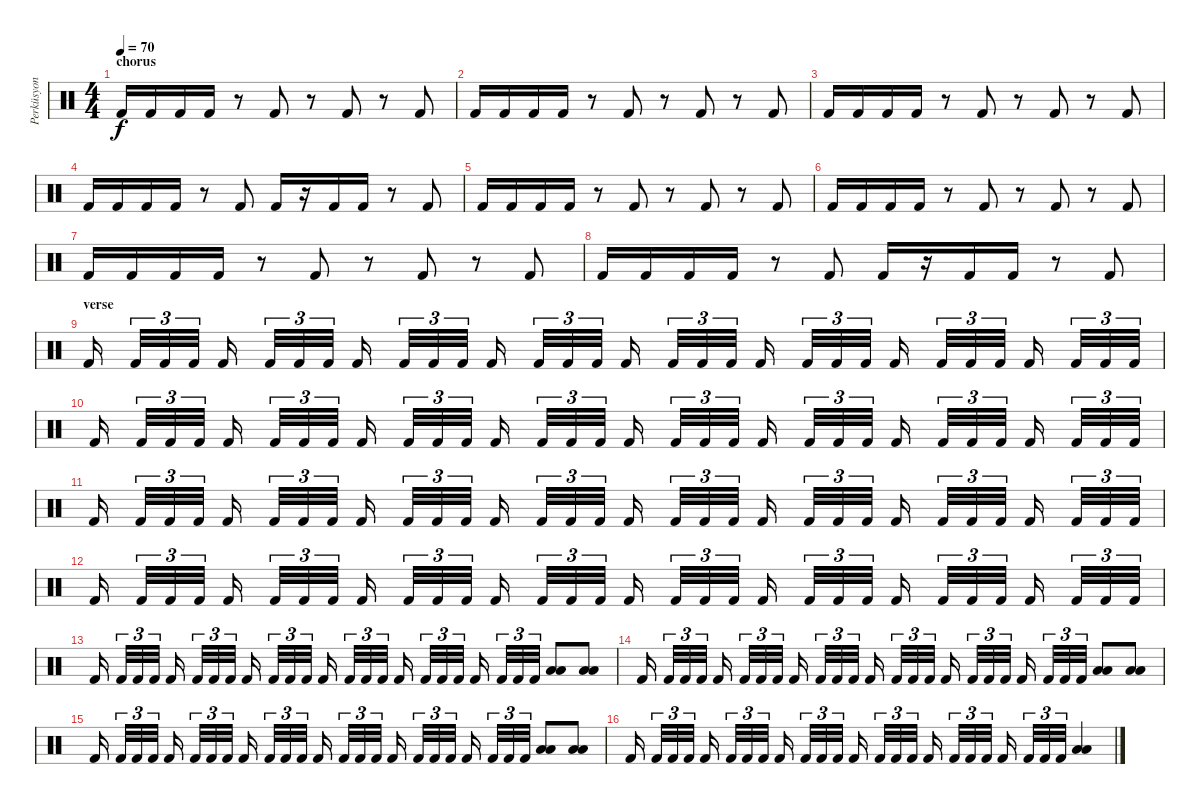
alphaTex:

\track ("Perküsyon" "Perküsyon") {instrument percussion}
\staff {score}
\articulation defaults
\ts (4 4)
\section ("" "chorus")
\tempo 70
\clef neutral
\ks c "Kick (hit) 2".16{dy f} "Kick (hit) 2".16 "Kick (hit) 2".16 "Kick (hit) 2".16
r.8 "Kick (hit) 2".8 r.8 "Kick (hit) 2".8 r.8 "Kick (hit) 2".8 |
"Kick (hit) 2".16 "Kick (hit) 2".16 "Kick (hit) 2".16 "Kick (hit) 2".16 r.8 "Kick (hit) 2".8 r.8 "Kick (hit) 2".8 r.8 "Kick (hit) 2".8 |
"Kick (hit) 2".16 "Kick (hit) 2".16 "Kick (hit) 2".16 "Kick (hit) 2".16 r.8 "Kick (hit) 2".8 r.8 "Kick (hit) 2".8 r.8 "Kick (hit) 2".8 |
"Kick (hit) 2".16 "Kick (hit) 2".16 "Kick (hit) 2".16 "Kick (hit) 2".16 r.8 "Kick (hit) 2".8 "Kick (hit) 2".16 r.16 "Kick (hit) 2".16 "Kick (hit) 2".16 r.8 "Kick (hit) 2".8 |
"Kick (hit) 2".16 "Kick (hit) 2".16 "Kick (hit) 2".16 "Kick (hit) 2".16 r.8 "Kick (hit) 2".8 r.8 "Kick (hit) 2".8 r.8 "Kick (hit) 2".8 |
"Kick (hit) 2".16 "Kick (hit) 2".16 "Kick (hit) 2".16 "Kick (hit) 2".16 r.8 "Kick (hit) 2".8 r.8 "Kick (hit) 2".8 r.8 "Kick (hit) 2".8 |
"Kick (hit) 2".16 "Kick (hit) 2".16 "Kick (hit) 2".16 "Kick (hit) 2".16 r.8 "Kick (hit) 2".8 r.8 "Kick (hit) 2".8 r.8 "Kick (hit) 2".8 |
"Kick (hit) 2".16 "Kick (hit) 2".16 "Kick (hit) 2".16 "Kick (hit) 2".16 r.8 "Kick (hit) 2".8 "Kick (hit) 2".16 r.16 "Kick (hit) 2".16 "Kick (hit) 2".16 r.8 "Kick (hit) 2".8 |
\section ("" "verse")
"Kick (hit) 2".16{volume 10} "Kick (hit) 2".32{tu (3 2)} "Kick (hit) 2".32{tu (3 2)} "Kick (hit) 2".32{tu (3 2)} "Kick (hit) 2".16{volume 13} "Kick (hit) 2".32{tu (3 2)} "Kick (hit) 2".32{tu (3 2)} "Kick (hit) 2".32{tu (3 2)} "Kick (hit) 2".16{volume 10} "Kick (hit) 2".32{tu (3 2)} "Kick (hit) 2".32{tu (3 2)} "Kick (hit) 2".32{tu (3 2)} "Kick (hit) 2".16{volume 8} "Kick (hit) 2".32{tu (3 2)} "Kick (hit) 2".32{tu (3 2)} "Kick (hit) 2".32{tu (3 2)} "Kick (hit) 2".16{volume 6} "Kick (hit) 2".32{tu (3 2)} "Kick (hit) 2".32{tu (3 2)} "Kick (hit) 2".32{tu (3 2)} "Kick (hit) 2".16{volume 6} "Kick (hit) 2".32{tu (3 2)} "Kick (hit) 2".32{tu (3 2)} "Kick (hit) 2".32{tu (3 2)} "Kick (hit) 2".16{volume 3} "Kick (hit) 2".32{tu (3 2)} "Kick (hit) 2".32{tu (3 2)} "Kick (hit) 2".32{tu (3 2)} "Kick (hit) 2".16{volume 0} "Kick (hit) 2".32{tu (3 2)} "Kick (hit) 2".32{tu (3 2)} "Kick (hit) 2".32{tu (3 2)} |
"Kick (hit) 2".16{volume 10} "Kick (hit) 2".32{tu (3 2)} "Kick (hit) 2".32{tu (3 2)} "Kick (hit) 2".32{tu (3 2)} "Kick (hit) 2".16{volume 13} "Kick (hit) 2".32{tu (3 2)} "Kick (hit) 2".32{tu (3 2)} "Kick (hit) 2".32{tu (3 2)} "Kick (hit) 2".16{volume 10} "Kick (hit) 2".32{tu (3 2)} "Kick (hit) 2".32{tu (3 2)} "Kick (hit) 2".32{tu (3 2)} "Kick (hit) 2".16{volume 8} "Kick (hit) 2".32{tu (3 2)} "Kick (hit) 2".32{tu (3 2)} "Kick (hit) 2".32{tu (3 2)} "Kick (hit) 2".16{volume 6} "Kick (hit) 2".32{tu (3 2)} "Kick (hit) 2".32{tu (3 2)} "Kick (hit) 2".32{tu (3 2)} "Kick (hit) 2".16{volume 6} "Kick (hit) 2".32{tu (3 2)} "Kick (hit) 2".32{tu (3 2)} "Kick (hit) 2".32{tu (3 2)} "Kick (hit) 2".16{volume 3} "Kick (hit) 2".32{tu (3 2)} "Kick (hit) 2".32{tu (3 2)} "Kick (hit) 2".32{tu (3 2)} "Kick (hit) 2".16{volume 0} "Kick (hit) 2".32{tu (3 2)} "Kick (hit) 2".32{tu (3 2)} "Kick (hit) 2".32{tu (3 2)} |
"Kick (hit) 2".16{volume 10} "Kick (hit) 2".32{tu (3 2)} "Kick (hit) 2".32{tu (3 2)} "Kick (hit) 2".32{tu (3 2)} "Kick (hit) 2".16{volume 13} "Kick (hit) 2".32{tu (3 2)} "Kick (hit) 2".32{tu (3 2)} "Kick (hit) 2".32{tu (3 2)} "Kick (hit) 2".16{volume 10} "Kick (hit) 2".32{tu (3 2)} "Kick (hit) 2".32{tu (3 2)} "Kick (hit) 2".32{tu (3 2)} "Kick (hit) 2".16{volume 8} "Kick (hit) 2".32{tu (3 2)} "Kick (hit) 2".32{tu (3 2)} "Kick (hit) 2".32{tu (3 2)} "Kick (hit) 2".16{volume 6} "Kick (hit) 2".32{tu (3 2)} "Kick (hit) 2".32{tu (3 2)} "Kick (hit) 2".32{tu (3 2)} "Kick (hit) 2".16{volume 6} "Kick (hit) 2".32{tu (3 2)} "Kick (hit) 2".32{tu (3 2)} "Kick (hit) 2".32{tu (3 2)} "Kick (hit) 2".16{volume 3} "Kick (hit) 2".32{tu (3 2)} "Kick (hit) 2".32{tu (3 2)} "Kick (hit) 2".32{tu (3 2)} "Kick (hit) 2".16{volume 0} "Kick (hit) 2".32{tu (3 2)} "Kick (hit) 2".32{tu (3 2)} "Kick (hit) 2".32{tu (3 2)} |
"Kick (hit) 2".16{volume 10} "Kick (hit) 2".32{tu (3 2)} "Kick (hit) 2".32{tu (3 2)} "Kick (hit) 2".32{tu (3 2)} "Kick (hit) 2".16{volume 13} "Kick (hit) 2".32{tu (3 2)} "Kick (hit) 2".32{tu (3 2)} "Kick (hit) 2".32{tu (3 2)} "Kick (hit) 2".16{volume 10} "Kick (hit) 2".32{tu (3 2)} "Kick (hit) 2".32{tu (3 2)} "Kick (hit) 2".32{tu (3 2)} "Kick (hit) 2".16{volume 8} "Kick (hit) 2".32{tu (3 2)} "Kick (hit) 2".32{tu (3 2)} "Kick (hit) 2".32{tu (3 2)} "Kick (hit) 2".16{volume 6} "Kick (hit) 2".32{tu (3 2)} "Kick (hit) 2".32{tu (3 2)} "Kick (hit) 2".32{tu (3 2)} "Kick (hit) 2".16{volume 6} "Kick (hit) 2".32{tu (3 2)} "Kick (hit) 2".32{tu (3 2)} "Kick (hit) 2".32{tu (3 2)} "Kick (hit) 2".16{volume 3} "Kick (hit) 2".32{tu (3 2)} "Kick (hit) 2".32{tu (3 2)} "Kick (hit) 2".32{tu (3 2)} "Kick (hit) 2".16{volume 0} "Kick (hit) 2".32{tu (3 2)} "Kick (hit) 2".32{tu (3 2)} "Kick (hit) 2".32{tu (3 2)} |
"Kick (hit) 2".16{volume 10} "Kick (hit) 2".32{tu (3 2)} "Kick (hit) 2".32{tu (3 2)} "Kick (hit) 2".32{tu (3 2)} "Kick (hit) 2".16{volume 13} "Kick (hit) 2".32{tu (3 2)} "Kick (hit) 2".32{tu (3 2)} "Kick (hit) 2".32{tu (3 2)} "Kick (hit) 2".16{volume 10} "Kick (hit) 2".32{tu (3 2)} "Kick (hit) 2".32{tu (3 2)} "Kick (hit) 2".32{tu (3 2)} "Kick (hit) 2".16{volume 8} "Kick (hit) 2".32{tu (3 2)} "Kick (hit) 2".32{tu (3 2)} "Kick (hit) 2".32{tu (3 2)} "Kick (hit) 2".16{volume 6} "Kick (hit) 2".32{tu (3 2)} "Kick (hit) 2".32{tu (3 2)} "Kick (hit) 2".32{tu (3 2)} "Kick (hit) 2".16{volume 6} "Kick (hit) 2".32{tu (3 2)} "Kick (hit) 2".32{tu (3 2)} "Kick (hit) 2".32{tu (3 2)} ("Low Floor Tom (hit)" "Low Floor Tom (hit)").8{volume 11} ("Low Floor Tom (hit)" "Low Floor Tom (hit)").8 |
"Kick (hit) 2".16{volume 10} "Kick (hit) 2".32{tu (3 2)} "Kick (hit) 2".32{tu (3 2)} "Kick (hit) 2".32{tu (3 2)} "Kick (hit) 2".16{volume 13} "Kick (hit) 2".32{tu (3 2)} "Kick (hit) 2".32{tu (3 2)} "Kick (hit) 2".32{tu (3 2)} "Kick (hit) 2".16{volume 10} "Kick (hit) 2".32{tu (3 2)} "Kick (hit) 2".32{tu (3 2)} "Kick (hit) 2".32{tu (3 2)} "Kick (hit) 2".16{volume 8} "Kick (hit) 2".32{tu (3 2)} "Kick (hit) 2".32{tu (3 2)} "Kick (hit) 2".32{tu (3 2)} "Kick (hit) 2".16{volume 6} "Kick (hit) 2".32{tu (3 2)} "Kick (hit) 2".32{tu (3 2)} "Kick (hit) 2".32{tu (3 2)} "Kick (hit) 2".16{volume 6} "Kick (hit) 2".32{tu (3 2)} "Kick (hit) 2".32{tu (3 2)} "Kick (hit) 2".32{tu (3 2)} ("Low Floor Tom (hit)" "Low Floor Tom (hit)").8{volume 11} ("Low Floor Tom (hit)" "Low Floor Tom (hit)").8 |
"Kick (hit) 2".16{volume 10} "Kick (hit) 2".32{tu (3 2)} "Kick (hit) 2".32{tu (3 2)} "Kick (hit) 2".32{tu (3 2)} "Kick (hit) 2".16{volume 13} "Kick (hit) 2".32{tu (3 2)} "Kick (hit) 2".32{tu (3 2)} "Kick (hit) 2".32{tu (3 2)} "Kick (hit) 2".16{volume 10} "Kick (hit) 2".32{tu (3 2)} "Kick (hit) 2".32{tu (3 2)} "Kick (hit) 2".32{tu (3 2)} "Kick (hit) 2".16{volume 8} "Kick (hit) 2".32{tu (3 2)} "Kick (hit) 2".32{tu (3 2)} "Kick (hit) 2".32{tu (3 2)} "Kick (hit) 2".16{volume 6} "Kick (hit) 2".32{tu (3 2)} "Kick (hit) 2".32{tu (3 2)} "Kick (hit) 2".32{tu (3 2)} "Kick (hit) 2".16{volume 6} "Kick (hit) 2".32{tu (3 2)} "Kick (hit) 2".32{tu (3 2)} "Kick (hit) 2".32{tu (3 2)} ("Low Floor Tom (hit)" "Low Floor Tom (hit)").8{volume 11} ("Low Floor Tom (hit)" "Low Floor Tom (hit)").8 |
"Kick (hit) 2".16{volume 10} "Kick (hit) 2".32{tu (3 2)} "Kick (hit) 2".32{tu (3 2)} "Kick (hit) 2".32{tu (3 2)} "Kick (hit) 2".16{volume 13} "Kick (hit) 2".32{tu (3 2)} "Kick (hit) 2".32{tu (3 2)} "Kick (hit) 2".32{tu (3 2)} "Kick (hit) 2".16{volume 10} "Kick (hit) 2".32{tu (3 2)} "Kick (hit) 2".32{tu (3 2)} "Kick (hit) 2".32{tu (3 2)} "Kick (hit) 2".16{volume 8} "Kick (hit) 2".32{tu (3 2)} "Kick (hit) 2".32{tu (3 2)} "Kick (hit) 2".32{tu (3 2)} "Kick (hit) 2".16{volume 6} "Kick (hit) 2".32{tu (3 2)} "Kick (hit) 2".32{tu (3 2)} "Kick (hit) 2".32{tu (3 2)} "Kick (hit) 2".16{volume 6} "Kick (hit) 2".32{tu (3 2)} "Kick (hit) 2".32{tu (3 2)} "Kick (hit) 2".32{tu (3 2)} ("Low Floor Tom (hit)" "Low Floor Tom (hit)").4{volume 11}
